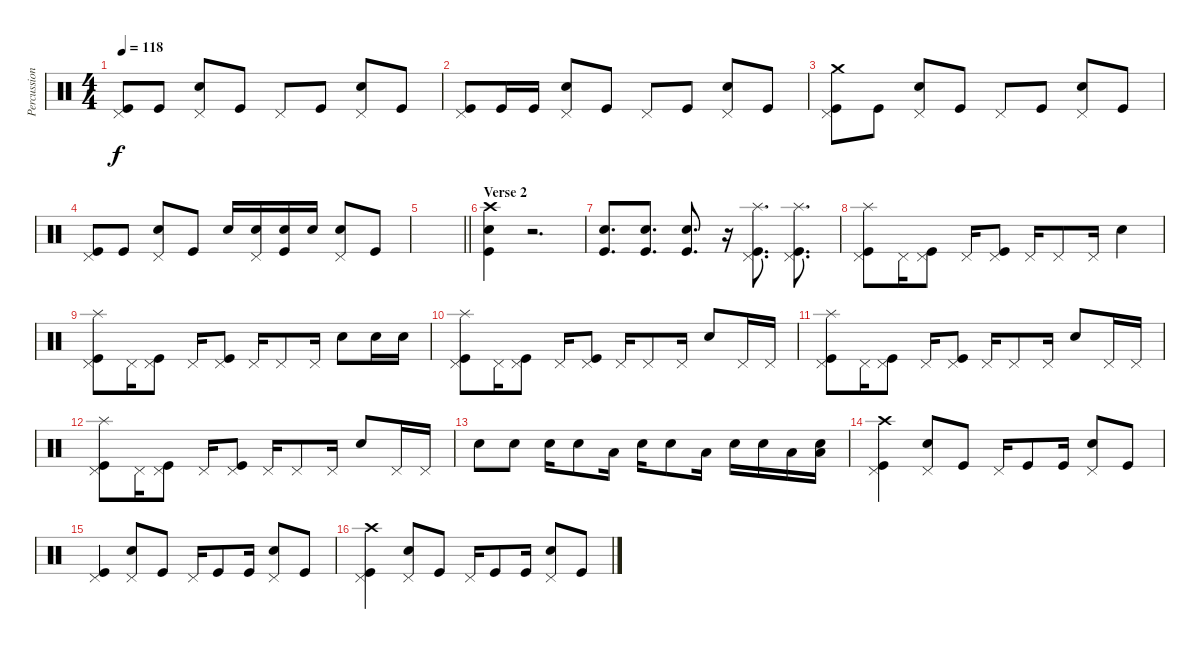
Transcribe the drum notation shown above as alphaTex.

\track ("Percussion" "Percussion") {instrument percussion}
\staff {score}
\articulation defaults
\ts (4 4)
\tempo 118
\clef neutral
\ks c
("Pedal Hi-Hat (hit)" "Kick (hit)").8{dy f} "Kick (hit)".8 ("Pedal Hi-Hat (hit)" "Electric Snare (hit)").8 "Kick (hit)".8 "Pedal Hi-Hat (hit)".8 "Kick (hit)".8 ("Pedal Hi-Hat (hit)" "Electric Snare (hit)").8 "Kick (hit)".8 |
("Pedal Hi-Hat (hit)" "Kick (hit)").8 "Kick (hit)".16 "Kick (hit)".16 ("Pedal Hi-Hat (hit)" "Electric Snare (hit)").8 "Kick (hit)".8 "Pedal Hi-Hat (hit)".8 "Kick (hit)".8 ("Pedal Hi-Hat (hit)" "Electric Snare (hit)").8 "Kick (hit)".8 |
("Crash medium (hit)" "Pedal Hi-Hat (hit)" "Kick (hit)").8 "Kick (hit)".8 ("Pedal Hi-Hat (hit)" "Electric Snare (hit)").8 "Kick (hit)".8 "Pedal Hi-Hat (hit)".8 "Kick (hit)".8 ("Pedal Hi-Hat (hit)" "Electric Snare (hit)").8 "Kick (hit)".8 |
("Pedal Hi-Hat (hit)" "Kick (hit)").8 "Kick (hit)".8 ("Pedal Hi-Hat (hit)" "Electric Snare (hit)").8 "Kick (hit)".8 "Electric Snare (hit)".16 ("Pedal Hi-Hat (hit)" "Electric Snare (hit)").16 ("Electric Snare (hit)" "Kick (hit)").16 "Electric Snare (hit)".16 ("Pedal Hi-Hat (hit)" "Electric Snare (hit)").8 "Kick (hit)".8 |
\barLineRight lightlight
|
\section ("" "Verse 2")
("Crash high (hit)" "Electric Snare (hit)" "Kick (hit)").4 r.2{d} |
("Electric Snare (hit)" "Kick (hit)").8{d} ("Electric Snare (hit)" "Kick (hit)").8{d} ("Electric Snare (hit)" "Kick (hit)").8{d} r.16 ("Pedal Hi-Hat (hit)" "Splash (hit)" "Kick (hit)").8{d} ("Pedal Hi-Hat (hit)" "Splash (hit)" "Kick (hit)").8{d} |
("Splash (hit)" "Pedal Hi-Hat (hit)" "Kick (hit)").8 "Pedal Hi-Hat (hit)".16 ("Pedal Hi-Hat (hit)" "Kick (hit)").8 "Pedal Hi-Hat (hit)".16 ("Pedal Hi-Hat (hit)" "Kick (hit)").8 "Pedal Hi-Hat (hit)".16 "Pedal Hi-Hat (hit)".8 "Pedal Hi-Hat (hit)".16 "Electric Snare (hit)".4 |
("Splash (hit)" "Pedal Hi-Hat (hit)" "Kick (hit)").8 "Pedal Hi-Hat (hit)".16 ("Pedal Hi-Hat (hit)" "Kick (hit)").8 "Pedal Hi-Hat (hit)".16 ("Pedal Hi-Hat (hit)" "Kick (hit)").8 "Pedal Hi-Hat (hit)".16 "Pedal Hi-Hat (hit)".8 "Pedal Hi-Hat (hit)".16 "Electric Snare (hit)".8 "Electric Snare (hit)".16 "Electric Snare (hit)".16 |
("Splash (hit)" "Pedal Hi-Hat (hit)" "Kick (hit)").8 "Pedal Hi-Hat (hit)".16 ("Pedal Hi-Hat (hit)" "Kick (hit)").8 "Pedal Hi-Hat (hit)".16 ("Pedal Hi-Hat (hit)" "Kick (hit)").8 "Pedal Hi-Hat (hit)".16 "Pedal Hi-Hat (hit)".8 "Pedal Hi-Hat (hit)".16 "Electric Snare (hit)".8 "Pedal Hi-Hat (hit)".16 "Pedal Hi-Hat (hit)".16 |
("Splash (hit)" "Pedal Hi-Hat (hit)" "Kick (hit)").8 "Pedal Hi-Hat (hit)".16 ("Pedal Hi-Hat (hit)" "Kick (hit)").8 "Pedal Hi-Hat (hit)".16 ("Pedal Hi-Hat (hit)" "Kick (hit)").8 "Pedal Hi-Hat (hit)".16 "Pedal Hi-Hat (hit)".8 "Pedal Hi-Hat (hit)".16 "Electric Snare (hit)".8 "Pedal Hi-Hat (hit)".16 "Pedal Hi-Hat (hit)".16 |
("Splash (hit)" "Pedal Hi-Hat (hit)" "Kick (hit)").8 "Pedal Hi-Hat (hit)".16 ("Pedal Hi-Hat (hit)" "Kick (hit)").8 "Pedal Hi-Hat (hit)".16 ("Pedal Hi-Hat (hit)" "Kick (hit)").8 "Pedal Hi-Hat (hit)".16 "Pedal Hi-Hat (hit)".8 "Pedal Hi-Hat (hit)".16 "Electric Snare (hit)".8 "Pedal Hi-Hat (hit)".16 "Pedal Hi-Hat (hit)".16 |
"Electric Snare (hit)".8 "Electric Snare (hit)".8 "Electric Snare (hit)".16 "Electric Snare (hit)".8 "Low Tom (hit)".16 "Electric Snare (hit)".16 "Electric Snare (hit)".8 "Low Tom (hit)".16 "Electric Snare (hit)".16 "Electric Snare (hit)".16 "Low Tom (hit)".16 ("Electric Snare (hit)" "Low Tom (hit)").16 |
("Crash high (hit)" "Pedal Hi-Hat (hit)" "Kick (hit)").4 ("Pedal Hi-Hat (hit)" "Electric Snare (hit)").8 "Kick (hit)".8 "Pedal Hi-Hat (hit)".16 "Kick (hit)".8 "Kick (hit)".16 ("Pedal Hi-Hat (hit)" "Electric Snare (hit)").8 "Kick (hit)".8 |
("Pedal Hi-Hat (hit)" "Kick (hit)").4 ("Pedal Hi-Hat (hit)" "Electric Snare (hit)").8 "Kick (hit)".8 "Pedal Hi-Hat (hit)".16 "Kick (hit)".8 "Kick (hit)".16 ("Pedal Hi-Hat (hit)" "Electric Snare (hit)").8 "Kick (hit)".8 |
("Crash high (hit)" "Pedal Hi-Hat (hit)" "Kick (hit)").4 ("Pedal Hi-Hat (hit)" "Electric Snare (hit)").8 "Kick (hit)".8 "Pedal Hi-Hat (hit)".16 "Kick (hit)".8 "Kick (hit)".16 ("Pedal Hi-Hat (hit)" "Electric Snare (hit)").8 "Kick (hit)".8
